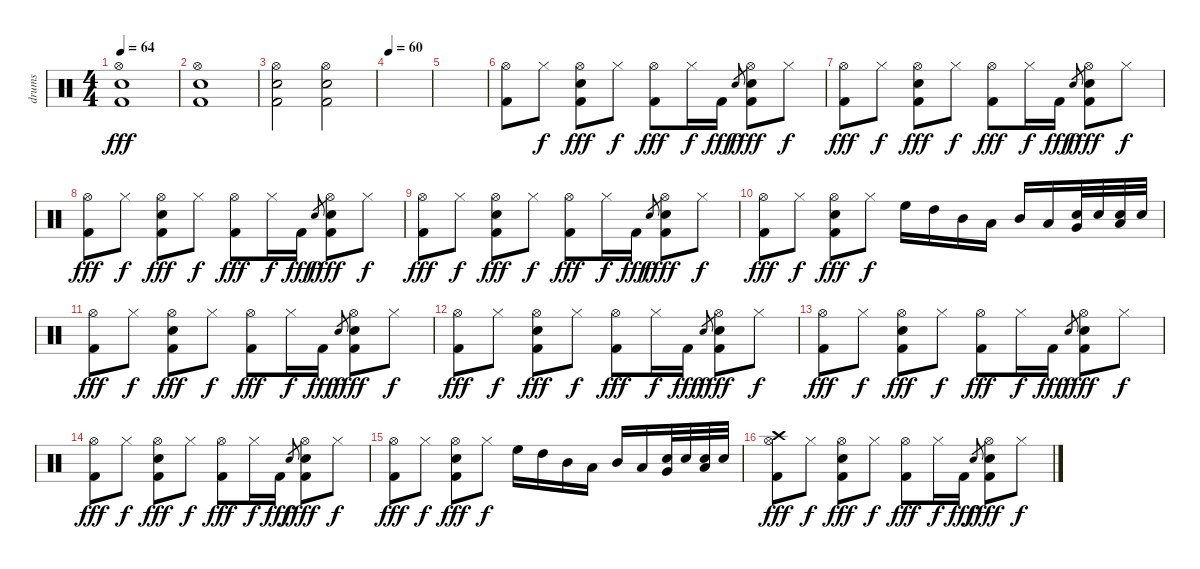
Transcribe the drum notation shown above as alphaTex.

\track ("drums" "drums") {instrument percussion}
\staff {score}
\articulation defaults
\ts (4 4)
\tempo 64
\clef neutral
\ks c
("Kick (hit) 2" "Snare (hit) 2" "Hi-Hat (open)").1{dy fff} |
("Kick (hit) 2" "Snare (hit) 2" "Hi-Hat (open)").1 |
("Kick (hit) 2" "Snare (hit) 2" "Hi-Hat (open)").2 ("Kick (hit) 2" "Snare (hit) 2" "Hi-Hat (open)").2 |
\tempo 60
|
|
("Kick (hit) 2" "Hi-Hat (open)").8 "Hi-Hat (closed)".8{dy f} ("Kick (hit) 2" "Hi-Hat (open)" "Electric Snare (hit)").8{dy fff} "Hi-Hat (closed)".8{dy f} ("Kick (hit) 2" "Hi-Hat (open)").8{dy fff} "Hi-Hat (closed)".16{dy f} "Kick (hit) 2".16{dy fff} "Electric Snare (hit)".8{gr dy f} ("Kick (hit) 2" "Hi-Hat (open)" "Electric Snare (hit)").8{dy fff} "Hi-Hat (closed)".8{dy f} |
("Kick (hit) 2" "Hi-Hat (open)").8{dy fff} "Hi-Hat (closed)".8{dy f} ("Kick (hit) 2" "Hi-Hat (open)" "Electric Snare (hit)").8{dy fff} "Hi-Hat (closed)".8{dy f} ("Kick (hit) 2" "Hi-Hat (open)").8{dy fff} "Hi-Hat (closed)".16{dy f} "Kick (hit) 2".16{dy fff} "Electric Snare (hit)".8{gr dy f} ("Kick (hit) 2" "Hi-Hat (open)" "Electric Snare (hit)").8{dy fff} "Hi-Hat (closed)".8{dy f} |
("Kick (hit) 2" "Hi-Hat (open)").8{dy fff} "Hi-Hat (closed)".8{dy f} ("Kick (hit) 2" "Hi-Hat (open)" "Electric Snare (hit)").8{dy fff} "Hi-Hat (closed)".8{dy f} ("Kick (hit) 2" "Hi-Hat (open)").8{dy fff} "Hi-Hat (closed)".16{dy f} "Kick (hit) 2".16{dy fff} "Electric Snare (hit)".8{gr dy f} ("Kick (hit) 2" "Hi-Hat (open)" "Electric Snare (hit)").8{dy fff} "Hi-Hat (closed)".8{dy f} |
("Kick (hit) 2" "Hi-Hat (open)").8{dy fff} "Hi-Hat (closed)".8{dy f} ("Kick (hit) 2" "Hi-Hat (open)" "Electric Snare (hit)").8{dy fff} "Hi-Hat (closed)".8{dy f} ("Kick (hit) 2" "Hi-Hat (open)").8{dy fff} "Hi-Hat (closed)".16{dy f} "Kick (hit) 2".16{dy fff} "Electric Snare (hit)".8{gr dy f} ("Kick (hit) 2" "Hi-Hat (open)" "Electric Snare (hit)").8{dy fff} "Hi-Hat (closed)".8{dy f} |
("Kick (hit) 2" "Hi-Hat (open)").8{dy fff} "Hi-Hat (closed)".8{dy f} ("Kick (hit) 2" "Hi-Hat (open)" "Electric Snare (hit)").8{dy fff} "Hi-Hat (closed)".8{dy f} "High Floor Tom (hit)".16 "High Tom (hit)".16 "Mid Tom (hit)".16 "Low Tom (hit)".16 "Mid Tom (hit)".16 "Low Tom (hit)".16 ("Electric Snare (hit)" "Very Low Tom (hit)").32 "Electric Snare (hit)".32 ("Electric Snare (hit)" "Low Floor Tom (hit)").32 "Electric Snare (hit)".32 |
("Kick (hit) 2" "Hi-Hat (open)").8{dy fff} "Hi-Hat (closed)".8{dy f} ("Kick (hit) 2" "Hi-Hat (open)" "Electric Snare (hit)").8{dy fff} "Hi-Hat (closed)".8{dy f} ("Kick (hit) 2" "Hi-Hat (open)").8{dy fff} "Hi-Hat (closed)".16{dy f} "Kick (hit) 2".16{dy fff} "Electric Snare (hit)".8{gr dy f} ("Kick (hit) 2" "Hi-Hat (open)" "Electric Snare (hit)").8{dy fff} "Hi-Hat (closed)".8{dy f} |
("Kick (hit) 2" "Hi-Hat (open)").8{dy fff} "Hi-Hat (closed)".8{dy f} ("Kick (hit) 2" "Hi-Hat (open)" "Electric Snare (hit)").8{dy fff} "Hi-Hat (closed)".8{dy f} ("Kick (hit) 2" "Hi-Hat (open)").8{dy fff} "Hi-Hat (closed)".16{dy f} "Kick (hit) 2".16{dy fff} "Electric Snare (hit)".8{gr dy f} ("Kick (hit) 2" "Hi-Hat (open)" "Electric Snare (hit)").8{dy fff} "Hi-Hat (closed)".8{dy f} |
("Kick (hit) 2" "Hi-Hat (open)").8{dy fff} "Hi-Hat (closed)".8{dy f} ("Kick (hit) 2" "Hi-Hat (open)" "Electric Snare (hit)").8{dy fff} "Hi-Hat (closed)".8{dy f} ("Kick (hit) 2" "Hi-Hat (open)").8{dy fff} "Hi-Hat (closed)".16{dy f} "Kick (hit) 2".16{dy fff} "Electric Snare (hit)".8{gr dy f} ("Kick (hit) 2" "Hi-Hat (open)" "Electric Snare (hit)").8{dy fff} "Hi-Hat (closed)".8{dy f} |
("Kick (hit) 2" "Hi-Hat (open)").8{dy fff} "Hi-Hat (closed)".8{dy f} ("Kick (hit) 2" "Hi-Hat (open)" "Electric Snare (hit)").8{dy fff} "Hi-Hat (closed)".8{dy f} ("Kick (hit) 2" "Hi-Hat (open)").8{dy fff} "Hi-Hat (closed)".16{dy f} "Kick (hit) 2".16{dy fff} "Electric Snare (hit)".8{gr dy f} ("Kick (hit) 2" "Hi-Hat (open)" "Electric Snare (hit)").8{dy fff} "Hi-Hat (closed)".8{dy f} |
("Kick (hit) 2" "Hi-Hat (open)").8{dy fff} "Hi-Hat (closed)".8{dy f} ("Kick (hit) 2" "Hi-Hat (open)" "Electric Snare (hit)").8{dy fff} "Hi-Hat (closed)".8{dy f} "High Floor Tom (hit)".16 "High Tom (hit)".16 "Mid Tom (hit)".16 "Low Tom (hit)".16 "Mid Tom (hit)".16 "Low Tom (hit)".16 ("Electric Snare (hit)" "Very Low Tom (hit)").32 "Electric Snare (hit)".32 ("Electric Snare (hit)" "Low Floor Tom (hit)").32 "Electric Snare (hit)".32 |
("Kick (hit) 2" "Hi-Hat (open)" "Crash high (hit)").8{dy fff} "Hi-Hat (closed)".8{dy f} ("Kick (hit) 2" "Hi-Hat (open)" "Electric Snare (hit)").8{dy fff} "Hi-Hat (closed)".8{dy f} ("Kick (hit) 2" "Hi-Hat (open)").8{dy fff} "Hi-Hat (closed)".16{dy f} "Kick (hit) 2".16{dy fff} "Electric Snare (hit)".8{gr dy f} ("Kick (hit) 2" "Hi-Hat (open)" "Electric Snare (hit)").8{dy fff} "Hi-Hat (closed)".8{dy f}
